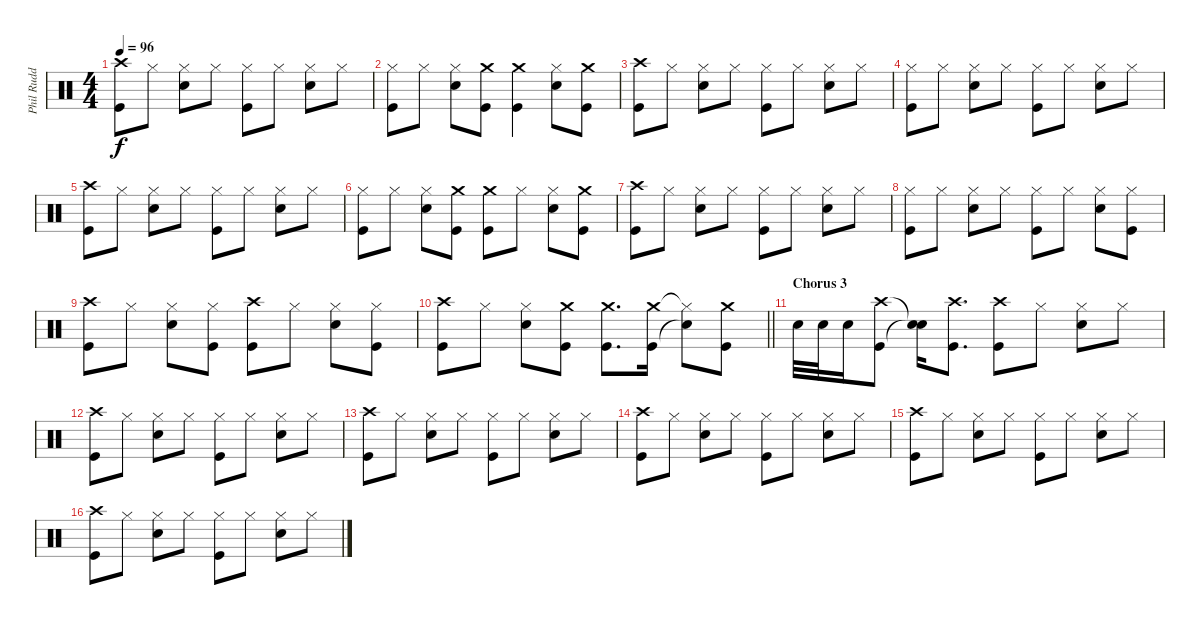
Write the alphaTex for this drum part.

\track ("Phil Rudd" "Phil Rudd") {instrument percussion}
\staff {score}
\articulation defaults
\ts (4 4)
\tempo 96
\clef neutral
\ks c
("Crash high (hit)" "Kick (hit)").8{dy f} "Hi-Hat (closed)".8 ("Hi-Hat (closed)" "Electric Snare (hit)").8 "Hi-Hat (closed)".8 ("Hi-Hat (closed)" "Kick (hit)").8 "Hi-Hat (closed)".8 ("Hi-Hat (closed)" "Electric Snare (hit)").8 "Hi-Hat (closed)".8 |
("Hi-Hat (closed)" "Kick (hit)").8 "Hi-Hat (closed)".8 ("Hi-Hat (closed)" "Electric Snare (hit)").8 ("Crash medium (hit)" "Kick (hit)").8 ("Crash medium (hit)" "Kick (hit)").4 ("Hi-Hat (closed)" "Electric Snare (hit)").8 ("Crash medium (hit)" "Kick (hit)").8 |
("Crash high (hit)" "Kick (hit)").8 "Hi-Hat (closed)".8 ("Hi-Hat (closed)" "Electric Snare (hit)").8 "Hi-Hat (closed)".8 ("Hi-Hat (closed)" "Kick (hit)").8 "Hi-Hat (closed)".8 ("Hi-Hat (closed)" "Electric Snare (hit)").8 "Hi-Hat (closed)".8 |
("Hi-Hat (closed)" "Kick (hit)").8 "Hi-Hat (closed)".8 ("Hi-Hat (closed)" "Electric Snare (hit)").8 "Hi-Hat (closed)".8 ("Hi-Hat (closed)" "Kick (hit)").8 "Hi-Hat (closed)".8 ("Hi-Hat (closed)" "Electric Snare (hit)").8 "Hi-Hat (closed)".8 |
("Crash high (hit)" "Kick (hit)").8 "Hi-Hat (closed)".8 ("Hi-Hat (closed)" "Electric Snare (hit)").8 "Hi-Hat (closed)".8 ("Hi-Hat (closed)" "Kick (hit)").8 "Hi-Hat (closed)".8 ("Hi-Hat (closed)" "Electric Snare (hit)").8 "Hi-Hat (closed)".8 |
("Hi-Hat (closed)" "Kick (hit)").8 "Hi-Hat (closed)".8 ("Hi-Hat (closed)" "Electric Snare (hit)").8 ("Crash medium (hit)" "Kick (hit)").8 ("Crash medium (hit)" "Kick (hit)").8 "Hi-Hat (closed)".8 ("Hi-Hat (closed)" "Electric Snare (hit)").8 ("Crash medium (hit)" "Kick (hit)").8 |
("Crash high (hit)" "Kick (hit)").8 "Hi-Hat (closed)".8 ("Hi-Hat (closed)" "Electric Snare (hit)").8 "Hi-Hat (closed)".8 ("Hi-Hat (closed)" "Kick (hit)").8 "Hi-Hat (closed)".8 ("Hi-Hat (closed)" "Electric Snare (hit)").8 "Hi-Hat (closed)".8 |
("Hi-Hat (closed)" "Kick (hit)").8 "Hi-Hat (closed)".8 ("Hi-Hat (closed)" "Electric Snare (hit)").8 "Hi-Hat (closed)".8 ("Hi-Hat (closed)" "Kick (hit)").8 "Hi-Hat (closed)".8 ("Hi-Hat (closed)" "Electric Snare (hit)").8 ("Hi-Hat (closed)" "Kick (hit)").8 |
("Crash high (hit)" "Kick (hit)").8 "Hi-Hat (closed)".8 ("Hi-Hat (closed)" "Electric Snare (hit)").8 ("Hi-Hat (closed)" "Kick (hit)").8 ("Crash high (hit)" "Kick (hit)").8 "Hi-Hat (closed)".8 ("Hi-Hat (closed)" "Electric Snare (hit)").8 ("Hi-Hat (closed)" "Kick (hit)").8 |
\barLineRight lightlight
("Crash high (hit)" "Kick (hit)").8 "Hi-Hat (closed)".8 ("Hi-Hat (closed)" "Electric Snare (hit)").8 ("Crash medium (hit)" "Kick (hit)").8 ("Crash medium (hit)" "Kick (hit)").8{d} ("Crash medium (hit)" "Kick (hit)").16 ("Hi-Hat (closed)"{t} "Electric Snare (hit)"{t}).8 ("Crash medium (hit)" "Kick (hit)").8 |
\section ("" "Chorus 3")
"Electric Snare (hit)".32 "Electric Snare (hit)".32 "Electric Snare (hit)".16 ("Crash high (hit)" "Kick (hit)").8 ("Snare (hit)"{t} "Snare (hit)"{t}).16 ("Crash high (hit)" "Kick (hit)").8{d} ("Crash high (hit)" "Kick (hit)").8 "Hi-Hat (closed)".8 ("Hi-Hat (closed)" "Electric Snare (hit)").8 "Hi-Hat (closed)".8 |
("Crash high (hit)" "Kick (hit)").8 "Hi-Hat (closed)".8 ("Hi-Hat (closed)" "Electric Snare (hit)").8 "Hi-Hat (closed)".8 ("Hi-Hat (closed)" "Kick (hit)").8 "Hi-Hat (closed)".8 ("Hi-Hat (closed)" "Electric Snare (hit)").8 "Hi-Hat (closed)".8 |
("Crash high (hit)" "Kick (hit)").8 "Hi-Hat (closed)".8 ("Hi-Hat (closed)" "Electric Snare (hit)").8 "Hi-Hat (closed)".8 ("Hi-Hat (closed)" "Kick (hit)").8 "Hi-Hat (closed)".8 ("Hi-Hat (closed)" "Electric Snare (hit)").8 "Hi-Hat (closed)".8 |
("Crash high (hit)" "Kick (hit)").8 "Hi-Hat (closed)".8 ("Hi-Hat (closed)" "Electric Snare (hit)").8 "Hi-Hat (closed)".8 ("Hi-Hat (closed)" "Kick (hit)").8 "Hi-Hat (closed)".8 ("Hi-Hat (closed)" "Electric Snare (hit)").8 "Hi-Hat (closed)".8 |
("Crash high (hit)" "Kick (hit)").8 "Hi-Hat (closed)".8 ("Hi-Hat (closed)" "Electric Snare (hit)").8 "Hi-Hat (closed)".8 ("Hi-Hat (closed)" "Kick (hit)").8 "Hi-Hat (closed)".8 ("Hi-Hat (closed)" "Electric Snare (hit)").8 "Hi-Hat (closed)".8 |
("Crash high (hit)" "Kick (hit)").8 "Hi-Hat (closed)".8 ("Hi-Hat (closed)" "Electric Snare (hit)").8 "Hi-Hat (closed)".8 ("Hi-Hat (closed)" "Kick (hit)").8 "Hi-Hat (closed)".8 ("Hi-Hat (closed)" "Electric Snare (hit)").8 "Hi-Hat (closed)".8
